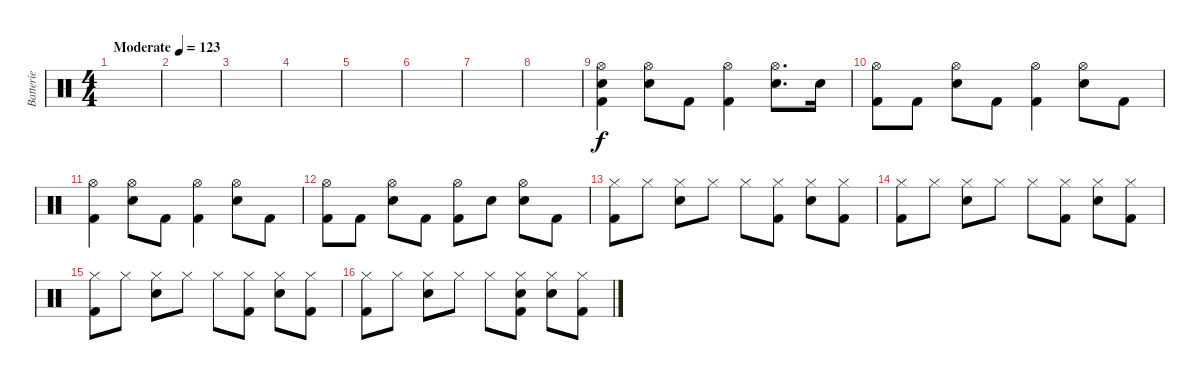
\track ("Batterie" "Batterie") {instrument percussion}
\staff {score}
\articulation defaults
\ts (4 4)
\tempo (123 "Moderate")
\clef neutral
\ks c
|
|
|
|
|
|
|
|
("Hi-Hat (open)" "Snare (hit) 2" "Kick (hit) 2").4 ("Hi-Hat (open)" "Snare (hit) 2").8 "Kick (hit) 2".8 ("Hi-Hat (open)" "Kick (hit) 2").4 ("Hi-Hat (open)" "Snare (hit) 2").8{d} "Snare (hit) 2".16 |
("Hi-Hat (open)" "Kick (hit) 2").8 "Kick (hit) 2".8 ("Hi-Hat (open)" "Snare (hit) 2").8 "Kick (hit) 2".8 ("Hi-Hat (open)" "Kick (hit) 2").4 ("Hi-Hat (open)" "Snare (hit) 2").8 "Kick (hit) 2".8 |
("Hi-Hat (open)" "Kick (hit) 2").4 ("Hi-Hat (open)" "Snare (hit) 2").8 "Kick (hit) 2".8 ("Hi-Hat (open)" "Kick (hit) 2").4 ("Hi-Hat (open)" "Snare (hit) 2").8 "Kick (hit) 2".8 |
("Hi-Hat (open)" "Kick (hit) 2").8 "Kick (hit) 2".8 ("Hi-Hat (open)" "Snare (hit) 2").8 "Kick (hit) 2".8 ("Hi-Hat (open)" "Kick (hit) 2").8 "Snare (hit) 2".8 ("Hi-Hat (open)" "Snare (hit) 2").8 "Kick (hit) 2".8 |
("Hi-Hat (closed)" "Kick (hit) 2").8 "Hi-Hat (closed)".8 ("Hi-Hat (closed)" "Snare (hit) 2").8 "Hi-Hat (closed)".8 "Hi-Hat (closed)".8 ("Hi-Hat (closed)" "Kick (hit) 2").8 ("Hi-Hat (closed)" "Snare (hit) 2").8 ("Hi-Hat (closed)" "Kick (hit) 2").8 |
("Hi-Hat (closed)" "Kick (hit) 2").8 "Hi-Hat (closed)".8 ("Hi-Hat (closed)" "Snare (hit) 2").8 "Hi-Hat (closed)".8 "Hi-Hat (closed)".8 ("Hi-Hat (closed)" "Kick (hit) 2").8 ("Hi-Hat (closed)" "Snare (hit) 2").8 ("Hi-Hat (closed)" "Kick (hit) 2").8 |
("Hi-Hat (closed)" "Kick (hit) 2").8 "Hi-Hat (closed)".8 ("Hi-Hat (closed)" "Snare (hit) 2").8 "Hi-Hat (closed)".8 "Hi-Hat (closed)".8 ("Hi-Hat (closed)" "Kick (hit) 2").8 ("Hi-Hat (closed)" "Snare (hit) 2").8 ("Hi-Hat (closed)" "Kick (hit) 2").8 |
("Hi-Hat (closed)" "Kick (hit) 2").8 "Hi-Hat (closed)".8 ("Hi-Hat (closed)" "Snare (hit) 2").8 "Hi-Hat (closed)".8 "Hi-Hat (closed)".8 ("Hi-Hat (closed)" "Snare (hit) 2" "Kick (hit) 2").8 ("Hi-Hat (closed)" "Snare (hit) 2").8 ("Hi-Hat (closed)" "Kick (hit) 2").8
